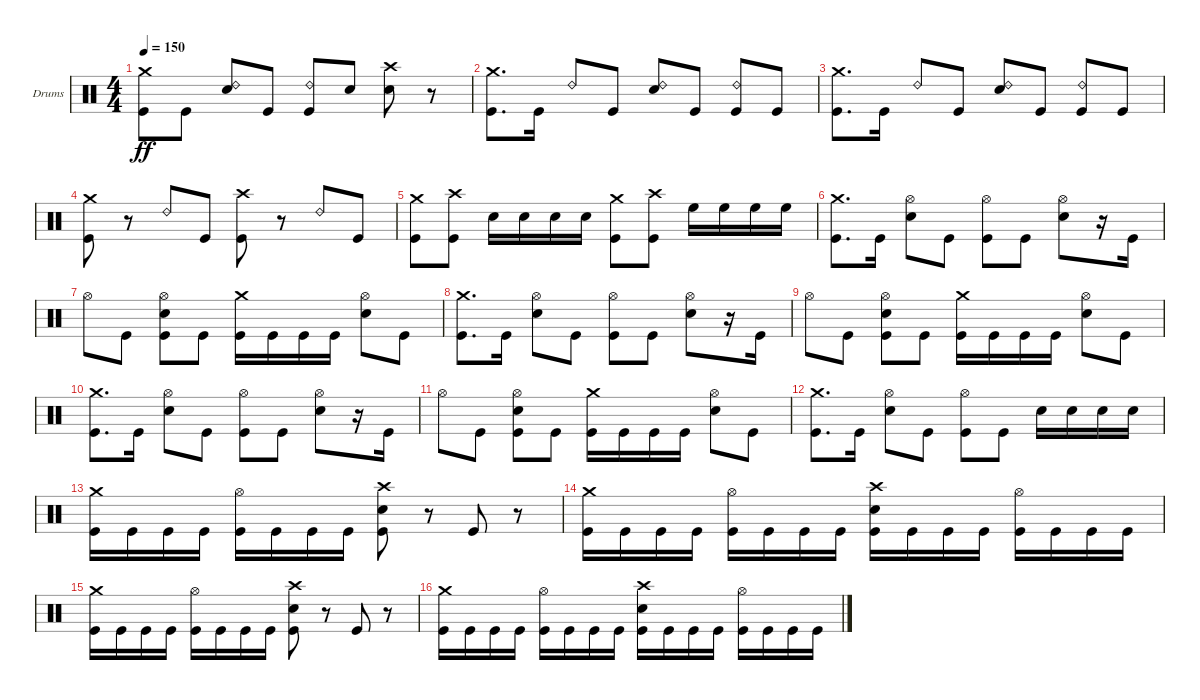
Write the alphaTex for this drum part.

\bracketExtendMode groupsimilarinstruments
\firstSystemTrackNameOrientation horizontal
\otherSystemsTrackNameOrientation horizontal
\track ("Drumkit" "Drums") {instrument percussion}
\staff {score}
\articulation defaults
\ts (4 4)
\tempo 150
\clef neutral
\ks c
("Crash medium (hit)" "Kick (hit)").8{dy ff} "Kick (hit)".8 ("Ride (bell) 2" "Snare (hit) 2").8 "Kick (hit)".8 ("Ride (bell) 2" "Kick (hit)").8 "Snare (hit) 2".8 ("Crash high (hit)" "Snare (hit) 2").8 r.8 |
("Crash medium (hit)" "Kick (hit)").8{d} "Kick (hit)".16 "Ride (bell) 2".8 "Kick (hit)".8 ("Ride (bell) 2" "Snare (hit) 2").8 "Kick (hit)".8 ("Ride (bell) 2" "Kick (hit)").8 "Kick (hit)".8 |
("Crash medium (hit)" "Kick (hit)").8{d} "Kick (hit)".16 "Ride (bell) 2".8 "Kick (hit)".8 ("Ride (bell) 2" "Snare (hit) 2").8 "Kick (hit)".8 ("Ride (bell) 2" "Kick (hit)").8 "Kick (hit)".8 |
("Crash medium (hit)" "Kick (hit)").8 r.8 "Ride (bell) 2".8 "Kick (hit)".8 ("Crash high (hit)" "Kick (hit)").8 r.8 "Ride (bell) 2".8 "Kick (hit)".8 |
("Crash medium (hit)" "Kick (hit)").8 ("Crash high (hit)" "Kick (hit)").8 "Snare (hit) 2".16 "Snare (hit) 2".16 "Snare (hit) 2".16 "Snare (hit) 2".16 ("Crash medium (hit)" "Kick (hit)").8 ("Crash high (hit)" "Kick (hit)").8 "High Floor Tom (hit)".16 "High Floor Tom (hit)".16 "High Floor Tom (hit)".16 "High Floor Tom (hit)".16 |
("Crash medium (hit)" "Kick (hit)").8{d} "Kick (hit)".16 ("Hi-Hat (open)" "Snare (hit) 2").8 "Kick (hit)".8 ("Hi-Hat (open)" "Kick (hit)").8 "Kick (hit)".8 ("Hi-Hat (open)" "Snare (hit) 2").8 r.16 "Kick (hit)".16 |
"Hi-Hat (open)".8 "Kick (hit)".8 ("Hi-Hat (open)" "Snare (hit) 2" "Kick (hit)").8 "Kick (hit)".8 ("Crash medium (hit)" "Kick (hit)").16 "Kick (hit)".16 "Kick (hit)".16 "Kick (hit)".16 ("Hi-Hat (open)" "Snare (hit) 2").8 "Kick (hit)".8 |
("Crash medium (hit)" "Kick (hit)").8{d} "Kick (hit)".16 ("Hi-Hat (open)" "Snare (hit) 2").8 "Kick (hit)".8 ("Hi-Hat (open)" "Kick (hit)").8 "Kick (hit)".8 ("Hi-Hat (open)" "Snare (hit) 2").8 r.16 "Kick (hit)".16 |
"Hi-Hat (open)".8 "Kick (hit)".8 ("Hi-Hat (open)" "Snare (hit) 2" "Kick (hit)").8 "Kick (hit)".8 ("Crash medium (hit)" "Kick (hit)").16 "Kick (hit)".16 "Kick (hit)".16 "Kick (hit)".16 ("Hi-Hat (open)" "Snare (hit) 2").8 "Kick (hit)".8 |
("Crash medium (hit)" "Kick (hit)").8{d} "Kick (hit)".16 ("Hi-Hat (open)" "Snare (hit) 2").8 "Kick (hit)".8 ("Hi-Hat (open)" "Kick (hit)").8 "Kick (hit)".8 ("Hi-Hat (open)" "Snare (hit) 2").8 r.16 "Kick (hit)".16 |
"Hi-Hat (open)".8 "Kick (hit)".8 ("Hi-Hat (open)" "Snare (hit) 2" "Kick (hit)").8 "Kick (hit)".8 ("Crash medium (hit)" "Kick (hit)").16 "Kick (hit)".16 "Kick (hit)".16 "Kick (hit)".16 ("Hi-Hat (open)" "Snare (hit) 2").8 "Kick (hit)".8 |
("Crash medium (hit)" "Kick (hit)").8{d} "Kick (hit)".16 ("Hi-Hat (open)" "Snare (hit) 2").8 "Kick (hit)".8 ("Hi-Hat (open)" "Kick (hit)").8 "Kick (hit)".8 "Snare (hit) 2".16 "Snare (hit) 2".16 "Snare (hit) 2".16 "Snare (hit) 2".16 |
("Crash medium (hit)" "Kick (hit)").16 "Kick (hit)".16 "Kick (hit)".16 "Kick (hit)".16 ("Hi-Hat (open)" "Kick (hit)").16 "Kick (hit)".16 "Kick (hit)".16 "Kick (hit)".16 ("Crash high (hit)" "Snare (hit) 2" "Kick (hit)").8 r.8 "Kick (hit)".8 r.8 |
("Crash medium (hit)" "Kick (hit)").16 "Kick (hit)".16 "Kick (hit)".16 "Kick (hit)".16 ("Hi-Hat (open)" "Kick (hit)").16 "Kick (hit)".16 "Kick (hit)".16 "Kick (hit)".16 ("Crash high (hit)" "Snare (hit) 2" "Kick (hit)").16 "Kick (hit)".16 "Kick (hit)".16 "Kick (hit)".16 ("Hi-Hat (open)" "Kick (hit)").16 "Kick (hit)".16 "Kick (hit)".16 "Kick (hit)".16 |
("Crash medium (hit)" "Kick (hit)").16 "Kick (hit)".16 "Kick (hit)".16 "Kick (hit)".16 ("Hi-Hat (open)" "Kick (hit)").16 "Kick (hit)".16 "Kick (hit)".16 "Kick (hit)".16 ("Crash high (hit)" "Snare (hit) 2" "Kick (hit)").8 r.8 "Kick (hit)".8 r.8 |
("Crash medium (hit)" "Kick (hit)").16 "Kick (hit)".16 "Kick (hit)".16 "Kick (hit)".16 ("Hi-Hat (open)" "Kick (hit)").16 "Kick (hit)".16 "Kick (hit)".16 "Kick (hit)".16 ("Crash high (hit)" "Snare (hit) 2" "Kick (hit)").16 "Kick (hit)".16 "Kick (hit)".16 "Kick (hit)".16 ("Hi-Hat (open)" "Kick (hit)").16 "Kick (hit)".16 "Kick (hit)".16 "Kick (hit)".16
